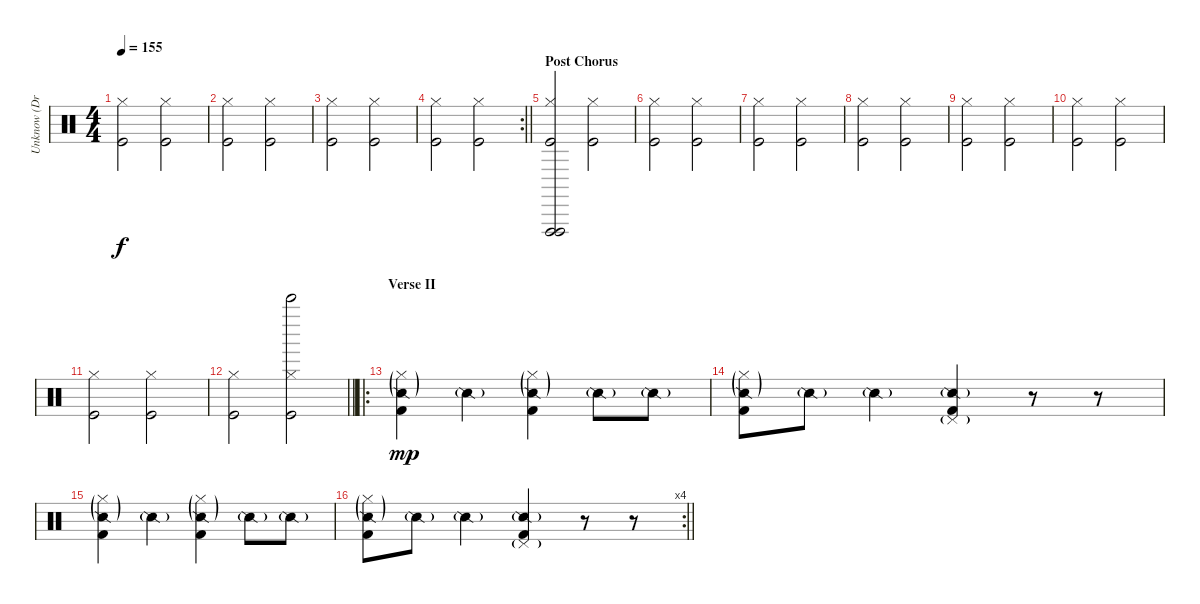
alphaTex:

\track ("Unknow (Drumer)" "Unknow (Dr") {instrument percussion}
\staff {score}
\articulation defaults
\ts (4 4)
\tempo 155
\clef neutral
\ks c
("Hi-Hat (closed)" "Kick (hit)").2{dy f} ("Hi-Hat (closed)" "Kick (hit)").2 |
("Hi-Hat (closed)" "Kick (hit)").2 ("Hi-Hat (closed)" "Kick (hit)").2 |
("Hi-Hat (closed)" "Kick (hit)").2 ("Hi-Hat (closed)" "Kick (hit)").2 |
\rc 2
\barLineRight lightlight
("Hi-Hat (closed)" "Kick (hit)").2 ("Hi-Hat (closed)" "Kick (hit)").2 |
\section ("" "Post Chorus")
("Vibraslap (hit)" "Vibraslap (hit)" "Hi-Hat (closed)" "Kick (hit)").2 ("Hi-Hat (closed)" "Kick (hit)").2 |
("Hi-Hat (closed)" "Kick (hit)").2 ("Hi-Hat (closed)" "Kick (hit)").2 |
("Hi-Hat (closed)" "Kick (hit)").2 ("Hi-Hat (closed)" "Kick (hit)").2 |
("Hi-Hat (closed)" "Kick (hit)").2 ("Hi-Hat (closed)" "Kick (hit)").2 |
("Hi-Hat (closed)" "Kick (hit)").2 ("Hi-Hat (closed)" "Kick (hit)").2 |
("Hi-Hat (closed)" "Kick (hit)").2 ("Hi-Hat (closed)" "Kick (hit)").2 |
("Hi-Hat (closed)" "Kick (hit)").2 ("Hi-Hat (closed)" "Kick (hit)").2 |
\barLineRight lightlight
("Hi-Hat (closed)" "Kick (hit)").2 ("Bell Tree (hit)" "Hi-Hat (closed)" "Kick (hit)").2 |
\ro
\section ("" "Verse II")
("Hi-Hat (closed)"{g} "Snare (side stick) 2"{g} "Kick (hit) 2").4{dy mp} "Snare (side stick) 2"{g}.4 ("Hi-Hat (closed)"{g} "Snare (side stick) 2"{g} "Kick (hit) 2").4 "Snare (side stick) 2"{g}.8 "Snare (side stick) 2"{g}.8 |
("Hi-Hat (closed)"{g} "Snare (side stick) 2"{g} "Kick (hit) 2").8 "Snare (side stick) 2"{g}.8 "Snare (side stick) 2"{g}.4 ("Pedal Hi-Hat (hit)"{g} "Snare (side stick) 2"{g} "Kick (hit) 2").4 r.8 r.8 |
("Hi-Hat (closed)"{g} "Snare (side stick) 2"{g} "Kick (hit) 2").4 "Snare (side stick) 2"{g}.4 ("Hi-Hat (closed)"{g} "Snare (side stick) 2"{g} "Kick (hit) 2").4 "Snare (side stick) 2"{g}.8 "Snare (side stick) 2"{g}.8 |
\rc 4
\barLineRight lightlight
("Hi-Hat (closed)"{g} "Snare (side stick) 2"{g} "Kick (hit) 2").8 "Snare (side stick) 2"{g}.8 "Snare (side stick) 2"{g}.4 ("Pedal Hi-Hat (hit)"{g} "Snare (side stick) 2"{g} "Kick (hit) 2").4 r.8 r.8
